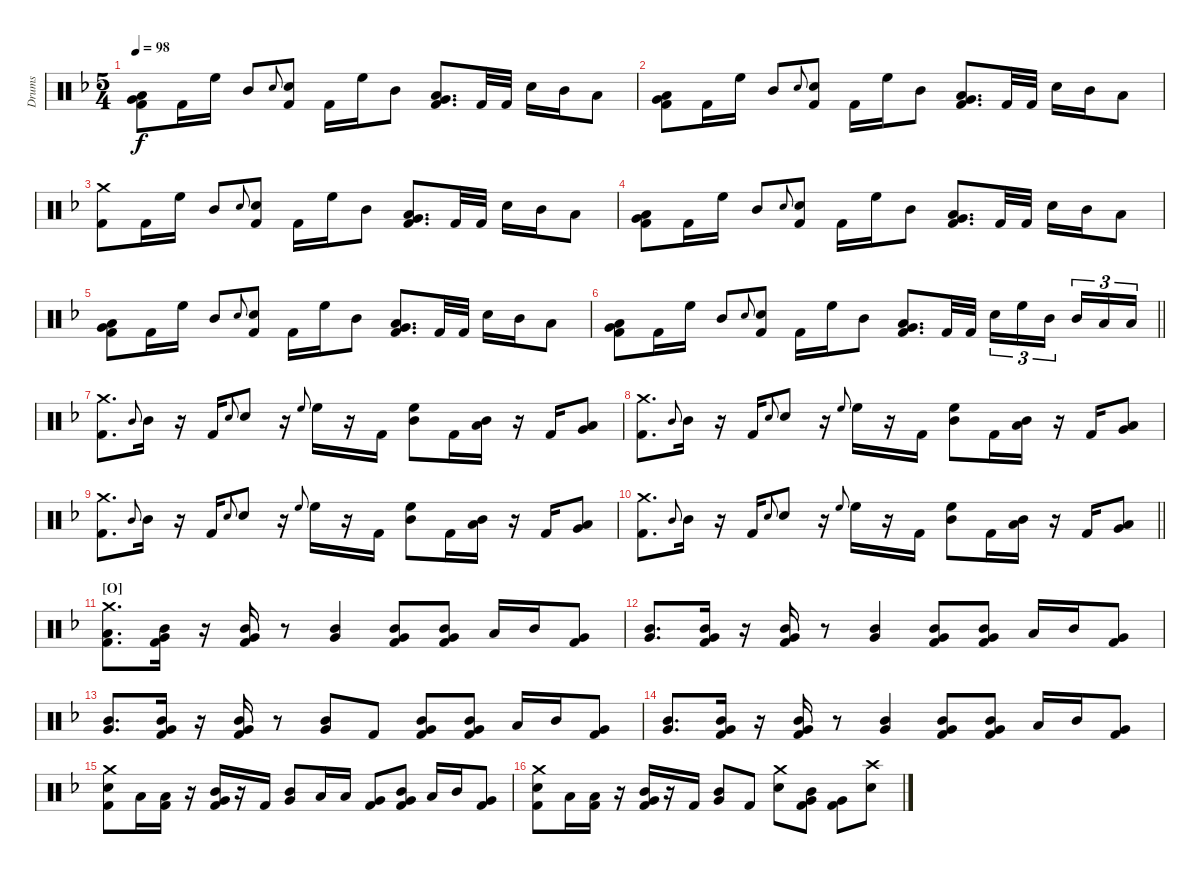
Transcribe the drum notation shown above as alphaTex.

\track ("Drums" "Drums") {instrument percussion}
\staff {score}
\articulation defaults
\ts (5 4)
\tempo 98
\clef neutral
\ks dminor
("Low Tom (hit)" "Very Low Tom (hit)" "Kick (hit) 2").8{dy f} "Kick (hit) 2".16 "High Floor Tom (hit)".16 "Mid Tom (hit)".8 "Electric Snare (hit)".8{gr onbeat} ("Electric Snare (hit)" "Kick (hit) 2").8 "Kick (hit) 2".16 "High Floor Tom (hit)".16 "Mid Tom (hit)".8 ("Low Tom (hit)" "Very Low Tom (hit)" "Kick (hit) 2").8{d} "Kick (hit) 2".32 "Kick (hit) 2".32 "Electric Snare (hit)".16 "Mid Tom (hit)".16 "Low Tom (hit)".8 |
("Low Tom (hit)" "Very Low Tom (hit)" "Kick (hit) 2").8 "Kick (hit) 2".16 "High Floor Tom (hit)".16 "Mid Tom (hit)".8 "Electric Snare (hit)".8{gr onbeat} ("Electric Snare (hit)" "Kick (hit) 2").8 "Kick (hit) 2".16 "High Floor Tom (hit)".16 "Mid Tom (hit)".8 ("Low Tom (hit)" "Very Low Tom (hit)" "Kick (hit) 2").8{d} "Kick (hit) 2".32 "Kick (hit) 2".32 "Electric Snare (hit)".16 "Mid Tom (hit)".16 "Low Tom (hit)".8 |
("Crash medium (hit)" "Kick (hit) 2").8 "Kick (hit) 2".16 "High Floor Tom (hit)".16 "Mid Tom (hit)".8 "Electric Snare (hit)".8{gr onbeat} ("Electric Snare (hit)" "Kick (hit) 2").8 "Kick (hit) 2".16 "High Floor Tom (hit)".16 "Mid Tom (hit)".8 ("Low Tom (hit)" "Very Low Tom (hit)" "Kick (hit) 2").8{d} "Kick (hit) 2".32 "Kick (hit) 2".32 "Electric Snare (hit)".16 "Mid Tom (hit)".16 "Low Tom (hit)".8 |
("Low Tom (hit)" "Very Low Tom (hit)" "Kick (hit) 2").8 "Kick (hit) 2".16 "High Floor Tom (hit)".16 "Mid Tom (hit)".8 "Electric Snare (hit)".8{gr onbeat} ("Electric Snare (hit)" "Kick (hit) 2").8 "Kick (hit) 2".16 "High Floor Tom (hit)".16 "Mid Tom (hit)".8 ("Low Tom (hit)" "Very Low Tom (hit)" "Kick (hit) 2").8{d} "Kick (hit) 2".32 "Kick (hit) 2".32 "Electric Snare (hit)".16 "Mid Tom (hit)".16 "Low Tom (hit)".8 |
("Low Tom (hit)" "Very Low Tom (hit)" "Kick (hit) 2").8 "Kick (hit) 2".16 "High Floor Tom (hit)".16 "Mid Tom (hit)".8 "Electric Snare (hit)".8{gr onbeat} ("Electric Snare (hit)" "Kick (hit) 2").8 "Kick (hit) 2".16 "High Floor Tom (hit)".16 "Mid Tom (hit)".8 ("Low Tom (hit)" "Very Low Tom (hit)" "Kick (hit) 2").8{d} "Kick (hit) 2".32 "Kick (hit) 2".32 "Electric Snare (hit)".16 "Mid Tom (hit)".16 "Low Tom (hit)".8 |
\barLineRight lightlight
("Low Tom (hit)" "Very Low Tom (hit)" "Kick (hit) 2").8 "Kick (hit) 2".16 "High Floor Tom (hit)".16 "Mid Tom (hit)".8 "Electric Snare (hit)".8{gr onbeat} ("Electric Snare (hit)" "Kick (hit) 2").8 "Kick (hit) 2".16 "High Floor Tom (hit)".16 "Mid Tom (hit)".8 ("Low Tom (hit)" "Very Low Tom (hit)" "Kick (hit) 2").8{d} "Kick (hit) 2".32 "Kick (hit) 2".32 "Electric Snare (hit)".16{tu (3 2)} "High Floor Tom (hit)".16{tu (3 2)} "Mid Tom (hit)".16{tu (3 2) beam splitsecondary} "Mid Tom (hit)".16{tu (3 2)} "Low Tom (hit)".16{tu (3 2)} "Low Tom (hit)".16{tu (3 2)} |
("Crash medium (hit)" "Kick (hit) 2").8{d} "Mid Tom (hit)".8{gr onbeat} "Mid Tom (hit)".16 r.16 "Kick (hit) 2".16 "Electric Snare (hit)".8{gr onbeat} "Electric Snare (hit)".8 r.16 "High Floor Tom (hit)".8{gr onbeat} "High Floor Tom (hit)".16 r.16 "Kick (hit) 2".16 ("High Floor Tom (hit)" "Mid Tom (hit)").8 "Kick (hit) 2".16 ("Mid Tom (hit)" "Low Tom (hit)").16 r.16 "Kick (hit) 2".16 ("Low Tom (hit)" "Very Low Tom (hit)").8 |
("Crash medium (hit)" "Kick (hit) 2").8{d} "Mid Tom (hit)".8{gr onbeat} "Mid Tom (hit)".16 r.16 "Kick (hit) 2".16 "Electric Snare (hit)".8{gr onbeat} "Electric Snare (hit)".8 r.16 "High Floor Tom (hit)".8{gr onbeat} "High Floor Tom (hit)".16 r.16 "Kick (hit) 2".16 ("High Floor Tom (hit)" "Mid Tom (hit)").8 "Kick (hit) 2".16 ("Mid Tom (hit)" "Low Tom (hit)").16 r.16 "Kick (hit) 2".16 ("Low Tom (hit)" "Very Low Tom (hit)").8 |
("Crash medium (hit)" "Kick (hit) 2").8{d} "Mid Tom (hit)".8{gr onbeat} "Mid Tom (hit)".16 r.16 "Kick (hit) 2".16 "Electric Snare (hit)".8{gr onbeat} "Electric Snare (hit)".8 r.16 "High Floor Tom (hit)".8{gr onbeat} "High Floor Tom (hit)".16 r.16 "Kick (hit) 2".16 ("High Floor Tom (hit)" "Mid Tom (hit)").8 "Kick (hit) 2".16 ("Mid Tom (hit)" "Low Tom (hit)").16 r.16 "Kick (hit) 2".16 ("Low Tom (hit)" "Very Low Tom (hit)").8 |
\barLineRight lightlight
("Crash medium (hit)" "Kick (hit) 2").8{d} "Mid Tom (hit)".8{gr onbeat} "Mid Tom (hit)".16 r.16 "Kick (hit) 2".16 "Electric Snare (hit)".8{gr onbeat} "Electric Snare (hit)".8 r.16 "High Floor Tom (hit)".8{gr onbeat} "High Floor Tom (hit)".16 r.16 "Kick (hit) 2".16 ("High Floor Tom (hit)" "Mid Tom (hit)").8 "Kick (hit) 2".16 ("Mid Tom (hit)" "Low Tom (hit)").16 r.16 "Kick (hit) 2".16 ("Low Tom (hit)" "Very Low Tom (hit)").8 |
\section ("" "[O]")
("Crash medium (hit)" "Low Tom (hit)" "Kick (hit) 2").8{d} ("Mid Tom (hit)" "Very Low Tom (hit)" "Kick (hit) 2").16 r.16 ("Mid Tom (hit)" "Very Low Tom (hit)" "Kick (hit) 2").16 r.8 ("Mid Tom (hit)" "Very Low Tom (hit)").4 ("Mid Tom (hit)" "Very Low Tom (hit)" "Kick (hit) 2").8 ("Mid Tom (hit)" "Very Low Tom (hit)" "Kick (hit) 2").8 "Low Tom (hit)".16 "Mid Tom (hit)".16 ("Very Low Tom (hit)" "Kick (hit) 2").8 |
("Mid Tom (hit)" "Very Low Tom (hit)").8{d} ("Mid Tom (hit)" "Very Low Tom (hit)" "Kick (hit) 2").16 r.16 ("Mid Tom (hit)" "Very Low Tom (hit)" "Kick (hit) 2").16 r.8 ("Mid Tom (hit)" "Very Low Tom (hit)").4 ("Mid Tom (hit)" "Very Low Tom (hit)" "Kick (hit) 2").8 ("Mid Tom (hit)" "Very Low Tom (hit)" "Kick (hit) 2").8 "Low Tom (hit)".16 "Mid Tom (hit)".16 ("Very Low Tom (hit)" "Kick (hit) 2").8 |
("Mid Tom (hit)" "Very Low Tom (hit)").8{d} ("Mid Tom (hit)" "Very Low Tom (hit)" "Kick (hit) 2").16 r.16 ("Mid Tom (hit)" "Very Low Tom (hit)" "Kick (hit) 2").16 r.8 ("Mid Tom (hit)" "Very Low Tom (hit)").8 "Kick (hit) 2".8 ("Mid Tom (hit)" "Very Low Tom (hit)" "Kick (hit) 2").8 ("Mid Tom (hit)" "Very Low Tom (hit)" "Kick (hit) 2").8 "Low Tom (hit)".16 "Mid Tom (hit)".16 ("Very Low Tom (hit)" "Kick (hit) 2").8 |
("Mid Tom (hit)" "Very Low Tom (hit)").8{d} ("Mid Tom (hit)" "Very Low Tom (hit)" "Kick (hit) 2").16 r.16 ("Mid Tom (hit)" "Very Low Tom (hit)" "Kick (hit) 2").16 r.8 ("Mid Tom (hit)" "Very Low Tom (hit)").4 ("Mid Tom (hit)" "Very Low Tom (hit)" "Kick (hit) 2").8 ("Mid Tom (hit)" "Very Low Tom (hit)" "Kick (hit) 2").8 "Low Tom (hit)".16 "Mid Tom (hit)".16 ("Very Low Tom (hit)" "Kick (hit) 2").8 |
("Crash medium (hit)" "Electric Snare (hit)" "Kick (hit) 2").8 "Low Tom (hit)".16 ("Low Tom (hit)" "Kick (hit) 2").16 r.16 ("Mid Tom (hit)" "Very Low Tom (hit)" "Kick (hit) 2").16 r.16 "Kick (hit) 2".16 ("Mid Tom (hit)" "Very Low Tom (hit)").8 "Low Tom (hit)".16 "Low Tom (hit)".16 ("Very Low Tom (hit)" "Kick (hit) 2").8 ("Mid Tom (hit)" "Very Low Tom (hit)" "Kick (hit) 2").8 "Low Tom (hit)".16 "Mid Tom (hit)".16 ("Very Low Tom (hit)" "Kick (hit) 2").8 |
("Crash medium (hit)" "Electric Snare (hit)" "Kick (hit) 2").8 "Low Tom (hit)".16 ("Low Tom (hit)" "Kick (hit) 2").16 r.16 ("Mid Tom (hit)" "Very Low Tom (hit)" "Kick (hit) 2").16 r.16 "Kick (hit) 2".16 ("Mid Tom (hit)" "Very Low Tom (hit)").8 "Kick (hit) 2".8 ("Crash medium (hit)" "Electric Snare (hit)").8 ("Mid Tom (hit)" "Very Low Tom (hit)" "Kick (hit) 2").8{beam split} ("Very Low Tom (hit)" "Kick (hit) 2").8 ("Crash high (hit)" "Electric Snare (hit)").8
